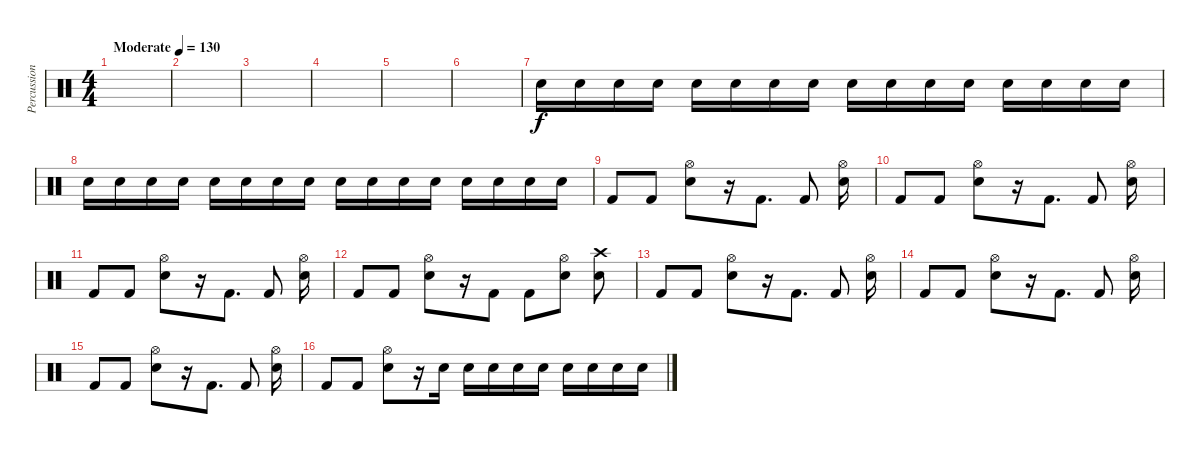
\track ("Percussion" "Percussion") {instrument percussion}
\staff {score}
\articulation defaults
\ts (4 4)
\tempo (130 "Moderate")
\clef neutral
\ks c
|
|
|
|
|
|
"Electric Snare (hit)".16 "Electric Snare (hit)".16 "Electric Snare (hit)".16 "Electric Snare (hit)".16 "Electric Snare (hit)".16 "Electric Snare (hit)".16 "Electric Snare (hit)".16 "Electric Snare (hit)".16 "Electric Snare (hit)".16 "Electric Snare (hit)".16 "Electric Snare (hit)".16 "Electric Snare (hit)".16 "Electric Snare (hit)".16 "Electric Snare (hit)".16 "Electric Snare (hit)".16 "Electric Snare (hit)".16 |
"Electric Snare (hit)".16 "Electric Snare (hit)".16 "Electric Snare (hit)".16 "Electric Snare (hit)".16 "Electric Snare (hit)".16 "Electric Snare (hit)".16 "Electric Snare (hit)".16 "Electric Snare (hit)".16 "Electric Snare (hit)".16 "Electric Snare (hit)".16 "Electric Snare (hit)".16 "Electric Snare (hit)".16 "Electric Snare (hit)".16 "Electric Snare (hit)".16 "Electric Snare (hit)".16 "Electric Snare (hit)".16 |
"Kick (hit) 2".8 "Kick (hit) 2".8 ("Electric Snare (hit)" "Hi-Hat (open)").8 r.16 "Kick (hit) 2".8{d} "Kick (hit) 2".8 ("Electric Snare (hit)" "Hi-Hat (open)").16 |
"Kick (hit) 2".8 "Kick (hit) 2".8 ("Electric Snare (hit)" "Hi-Hat (open)").8 r.16 "Kick (hit) 2".8{d} "Kick (hit) 2".8 ("Electric Snare (hit)" "Hi-Hat (open)").16 |
"Kick (hit) 2".8 "Kick (hit) 2".8 ("Electric Snare (hit)" "Hi-Hat (open)").8 r.16 "Kick (hit) 2".8{d} "Kick (hit) 2".8 ("Electric Snare (hit)" "Hi-Hat (open)").16 |
"Kick (hit) 2".8 "Kick (hit) 2".8 ("Electric Snare (hit)" "Hi-Hat (open)").8 r.16 "Kick (hit) 2".8 "Kick (hit) 2".8 ("Electric Snare (hit)" "Hi-Hat (open)").8 ("Electric Snare (hit)" "Crash high (hit)").8 |
"Kick (hit) 2".8 "Kick (hit) 2".8 ("Electric Snare (hit)" "Hi-Hat (open)").8 r.16 "Kick (hit) 2".8{d} "Kick (hit) 2".8 ("Electric Snare (hit)" "Hi-Hat (open)").16 |
"Kick (hit) 2".8 "Kick (hit) 2".8 ("Electric Snare (hit)" "Hi-Hat (open)").8 r.16 "Kick (hit) 2".8{d} "Kick (hit) 2".8 ("Electric Snare (hit)" "Hi-Hat (open)").16 |
"Kick (hit) 2".8 "Kick (hit) 2".8 ("Electric Snare (hit)" "Hi-Hat (open)").8 r.16 "Kick (hit) 2".8{d} "Kick (hit) 2".8 ("Electric Snare (hit)" "Hi-Hat (open)").16 |
"Kick (hit) 2".8 "Kick (hit) 2".8 ("Electric Snare (hit)" "Hi-Hat (open)").8 r.16 "Electric Snare (hit)".16 "Electric Snare (hit)".16 "Electric Snare (hit)".16 "Electric Snare (hit)".16 "Electric Snare (hit)".16 "Electric Snare (hit)".16 "Electric Snare (hit)".16 "Electric Snare (hit)".16 "Electric Snare (hit)".16
